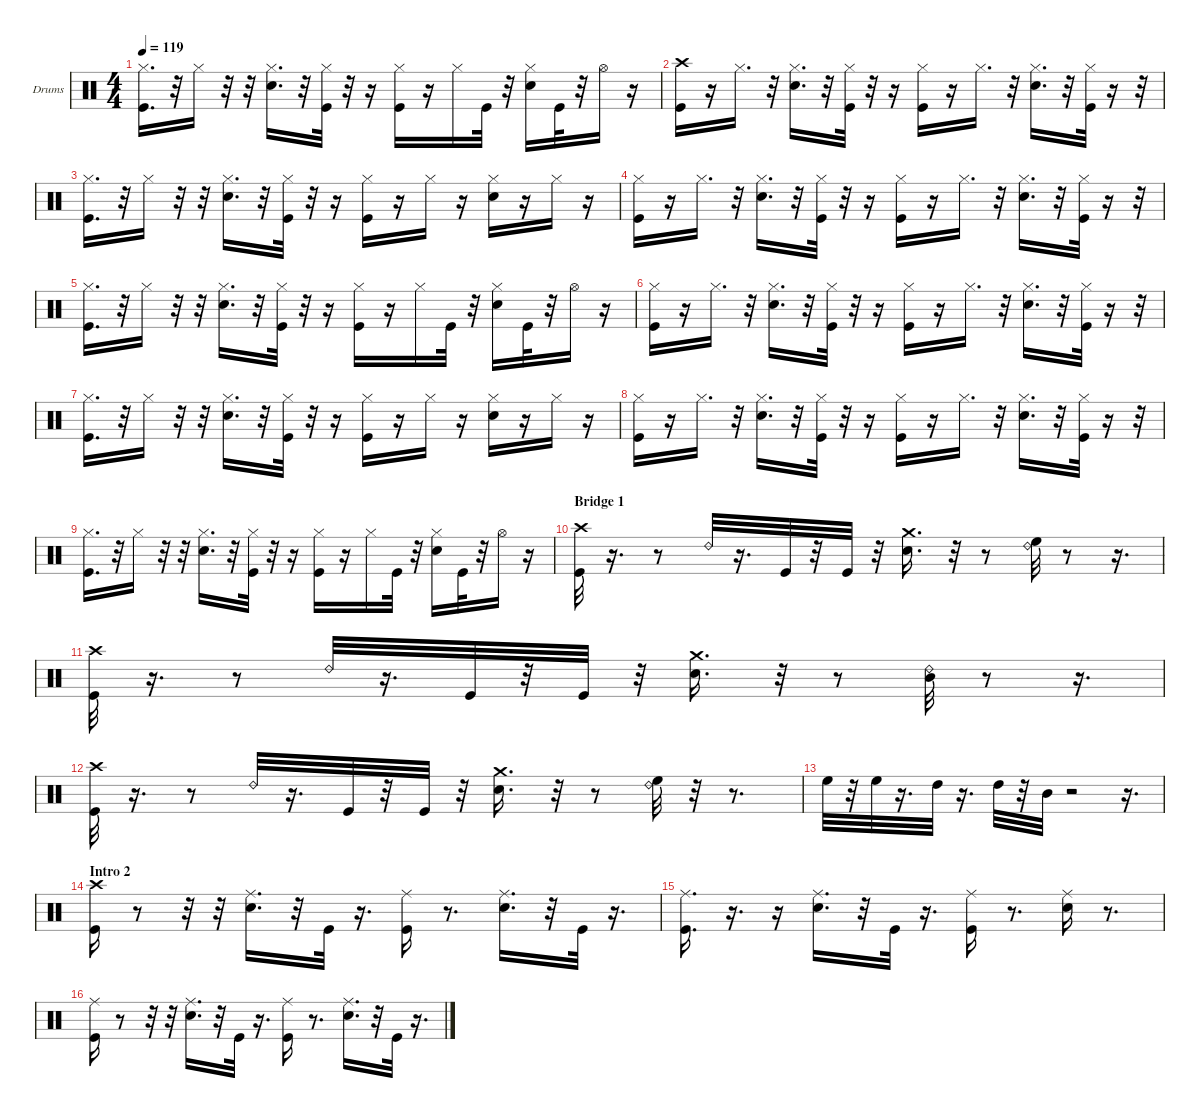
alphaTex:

\hideDynamics
\bracketExtendMode groupsimilarinstruments
\firstSystemTrackNameOrientation horizontal
\otherSystemsTrackNameOrientation horizontal
\track ("Drums" "Drums") {instrument percussion}
\staff {score}
\articulation defaults
\ts (4 4)
\tempo 119
\clef neutral
\ks c
("Kick (hit)" "Hi-Hat (closed)").16{d dy mf} r.32 "Hi-Hat (closed)".16 r.32 r.32 ("Snare (hit) 2" "Hi-Hat (closed)").16{d} r.32 ("Kick (hit)" "Hi-Hat (closed)").32 r.32 r.16 ("Kick (hit)" "Hi-Hat (closed)").16 r.16 "Hi-Hat (closed)".16 "Kick (hit)".32 r.32 ("Snare (hit) 2" "Hi-Hat (closed)").16 "Kick (hit)".32 r.32 "Hi-Hat (open)".16 r.16 |
("Kick (hit)" "Crash high (hit)").16 r.16 "Hi-Hat (closed)".16{d} r.32 ("Snare (hit) 2" "Hi-Hat (closed)").16{d} r.32 ("Kick (hit)" "Hi-Hat (closed)").32 r.32 r.16 ("Kick (hit)" "Hi-Hat (closed)").16 r.16 "Hi-Hat (closed)".16{d} r.32 ("Snare (hit) 2" "Hi-Hat (closed)").16{d} r.32 ("Kick (hit)" "Hi-Hat (closed)").32 r.16 r.32 |
("Kick (hit)" "Hi-Hat (closed)").16{d} r.32 "Hi-Hat (closed)".16 r.32 r.32 ("Snare (hit) 2" "Hi-Hat (closed)").16{d} r.32 ("Kick (hit)" "Hi-Hat (closed)").32 r.32 r.16 ("Kick (hit)" "Hi-Hat (closed)").16 r.16 "Hi-Hat (closed)".16 r.16 ("Snare (hit) 2" "Hi-Hat (closed)").16 r.16 "Hi-Hat (closed)".16 r.16 |
("Kick (hit)" "Hi-Hat (closed)").16 r.16 "Hi-Hat (closed)".16{d} r.32 ("Snare (hit) 2" "Hi-Hat (closed)").16{d} r.32 ("Kick (hit)" "Hi-Hat (closed)").32 r.32 r.16 ("Kick (hit)" "Hi-Hat (closed)").16 r.16 "Hi-Hat (closed)".16{d} r.32 ("Snare (hit) 2" "Hi-Hat (closed)").16{d} r.32 ("Kick (hit)" "Hi-Hat (closed)").32 r.16 r.32 |
("Kick (hit)" "Hi-Hat (closed)").16{d} r.32 "Hi-Hat (closed)".16 r.32 r.32 ("Snare (hit) 2" "Hi-Hat (closed)").16{d} r.32 ("Kick (hit)" "Hi-Hat (closed)").32 r.32 r.16 ("Kick (hit)" "Hi-Hat (closed)").16 r.16 "Hi-Hat (closed)".16 "Kick (hit)".32 r.32 ("Snare (hit) 2" "Hi-Hat (closed)").16 "Kick (hit)".32 r.32 "Hi-Hat (open)".16 r.16 |
("Kick (hit)" "Hi-Hat (closed)").16 r.16 "Hi-Hat (closed)".16{d} r.32 ("Snare (hit) 2" "Hi-Hat (closed)").16{d} r.32 ("Kick (hit)" "Hi-Hat (closed)").32 r.32 r.16 ("Kick (hit)" "Hi-Hat (closed)").16 r.16 "Hi-Hat (closed)".16{d} r.32 ("Snare (hit) 2" "Hi-Hat (closed)").16{d} r.32 ("Kick (hit)" "Hi-Hat (closed)").32 r.16 r.32 |
("Kick (hit)" "Hi-Hat (closed)").16{d} r.32 "Hi-Hat (closed)".16 r.32 r.32 ("Snare (hit) 2" "Hi-Hat (closed)").16{d} r.32 ("Kick (hit)" "Hi-Hat (closed)").32 r.32 r.16 ("Kick (hit)" "Hi-Hat (closed)").16 r.16 "Hi-Hat (closed)".16 r.16 ("Snare (hit) 2" "Hi-Hat (closed)").16 r.16 "Hi-Hat (closed)".16 r.16 |
("Kick (hit)" "Hi-Hat (closed)").16 r.16 "Hi-Hat (closed)".16{d} r.32 ("Snare (hit) 2" "Hi-Hat (closed)").16{d} r.32 ("Kick (hit)" "Hi-Hat (closed)").32 r.32 r.16 ("Kick (hit)" "Hi-Hat (closed)").16 r.16 "Hi-Hat (closed)".16{d} r.32 ("Snare (hit) 2" "Hi-Hat (closed)").16{d} r.32 ("Kick (hit)" "Hi-Hat (closed)").32 r.16 r.32 |
("Kick (hit)" "Hi-Hat (closed)").16{d} r.32 "Hi-Hat (closed)".16 r.32 r.32 ("Snare (hit) 2" "Hi-Hat (closed)").16{d} r.32 ("Kick (hit)" "Hi-Hat (closed)").32 r.32 r.16 ("Kick (hit)" "Hi-Hat (closed)").16 r.16 "Hi-Hat (closed)".16 "Kick (hit)".32 r.32 ("Snare (hit) 2" "Hi-Hat (closed)").16 "Kick (hit)".32 r.32 "Hi-Hat (open)".16 r.16 |
\section ("" "Bridge 1")
("Kick (hit)" "Crash high (hit)").32 r.16{d} r.8 "Ride (bell) 2".32 r.16{d} "Kick (hit)".32 r.32 "Kick (hit)".32 r.32 ("Crash medium (hit)" "Snare (hit) 2").16{d} r.32 r.8 ("High Floor Tom (hit)" "Ride (bell) 2").32 r.8 r.16{d} |
("Kick (hit)" "Crash high (hit)").32 r.16{d} r.8 "Ride (bell) 2".32 r.16{d} "Kick (hit)".32 r.32 "Kick (hit)".32 r.32 ("Crash medium (hit)" "Snare (hit) 2").16{d} r.32 r.8 ("Mid Tom (hit)" "Ride (bell) 2").32 r.8 r.16{d} |
("Kick (hit)" "Crash high (hit)").32 r.16{d} r.8 "Ride (bell) 2".32 r.16{d} "Kick (hit)".32 r.32 "Kick (hit)".32 r.32 ("Crash medium (hit)" "Snare (hit) 2").16{d} r.32 r.8 ("High Floor Tom (hit)" "Ride (bell) 2").32 r.32 r.8{d} |
"High Floor Tom (hit)".32 r.32 "High Floor Tom (hit)".32 r.16{d} "High Tom (hit)".32 r.16{d} "High Tom (hit)".32 r.32 "Mid Tom (hit)".32 r.2 r.16{d} |
\section ("" "Intro 2")
("Kick (hit)" "Crash high (hit)").16 r.8 r.32 r.32 ("Ride (middle)" "Snare (hit) 2").16{d} r.32 "Kick (hit)".32 r.16{d} ("Kick (hit)" "Ride (middle)").16 r.8{d} ("Snare (hit) 2" "Ride (middle)").16{d} r.32 "Kick (hit)".32 r.16{d} |
("Ride (middle)" "Kick (hit)").16{d} r.16{d} r.16 ("Ride (middle)" "Snare (hit) 2").16{d} r.32 "Kick (hit)".32 r.16{d} ("Ride (middle)" "Kick (hit)").16 r.8{d} ("Ride (middle)" "Snare (hit) 2").16 r.8{d} |
("Kick (hit)" "Ride (middle)").16 r.8 r.32 r.32 ("Ride (middle)" "Snare (hit) 2").16{d} r.32 "Kick (hit)".32 r.16{d} ("Kick (hit)" "Ride (middle)").16 r.8{d} ("Snare (hit) 2" "Ride (middle)").16{d} r.32 "Kick (hit)".32 r.16{d}
